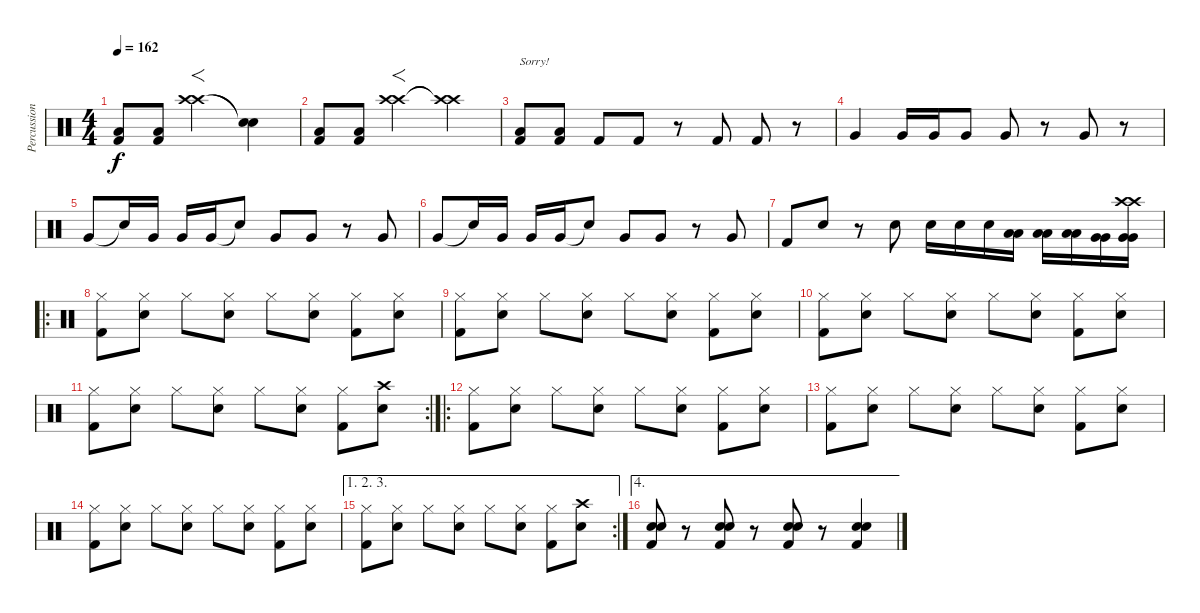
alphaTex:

\track ("Percussions" "Percussion") {instrument percussion}
\staff {score}
\articulation defaults
\ts (4 4)
\tempo 162
\clef neutral
\ks c
("Low Floor Tom (hit)" "Kick (hit) 2").8{dy f} ("Low Floor Tom (hit)" "Kick (hit) 2").8 ("Crash high (hit)" "Crash high (hit)").2{f} ("Snare (hit)"{t} "Snare (hit)"{t}).4 |
("Low Floor Tom (hit)" "Kick (hit) 2").8 ("Low Floor Tom (hit)" "Kick (hit) 2").8 ("Crash high (hit)" "Crash high (hit)").2{f} ("Crash high (hit)"{t} "Crash high (hit)"{t}).4 |
("Low Floor Tom (hit)" "Kick (hit) 2").8{txt "Sorry!"} ("Low Floor Tom (hit)" "Kick (hit) 2").8 "Kick (hit) 2".8 "Kick (hit) 2".8 r.8 "Kick (hit) 2".8 "Kick (hit) 2".8 r.8 |
"Very Low Tom (hit)".4 "Very Low Tom (hit)".16 "Very Low Tom (hit)".16 "Very Low Tom (hit)".8 "Very Low Tom (hit)".8 r.8 "Very Low Tom (hit)".8 r.8 |
"Very Low Tom (hit)".8 "Snare (hit)"{t}.16 "Very Low Tom (hit)".16 "Very Low Tom (hit)".16 "Very Low Tom (hit)".16 "Snare (hit)"{t}.8 "Very Low Tom (hit)".8 "Very Low Tom (hit)".8 r.8 "Very Low Tom (hit)".8 |
"Very Low Tom (hit)".8 "Snare (hit)"{t}.16 "Very Low Tom (hit)".16 "Very Low Tom (hit)".16 "Very Low Tom (hit)".16 "Snare (hit)"{t}.8 "Very Low Tom (hit)".8 "Very Low Tom (hit)".8 r.8 "Very Low Tom (hit)".8 |
"Kick (hit) 2".8 "Electric Snare (hit)".8 r.8 "Electric Snare (hit)".8 "Electric Snare (hit)".16 "Electric Snare (hit)".16 "Electric Snare (hit)".16 ("Low Tom (hit)" "Low Tom (hit)").16 ("Low Tom (hit)" "Low Tom (hit)").16 ("Low Tom (hit)" "Low Tom (hit)").16 ("Very Low Tom (hit)" "Very Low Tom (hit)").16 ("Crash high (hit)" "Crash high (hit)" "Very Low Tom (hit)" "Very Low Tom (hit)").16 |
\ro
("Hi-Hat (closed)" "Kick (hit) 2").8 ("Hi-Hat (closed)" "Electric Snare (hit)").8 "Hi-Hat (closed)".8 ("Hi-Hat (closed)" "Electric Snare (hit)").8 "Hi-Hat (closed)".8 ("Hi-Hat (closed)" "Electric Snare (hit)").8 ("Hi-Hat (closed)" "Kick (hit) 2").8 ("Hi-Hat (closed)" "Electric Snare (hit)").8 |
("Hi-Hat (closed)" "Kick (hit) 2").8 ("Hi-Hat (closed)" "Electric Snare (hit)").8 "Hi-Hat (closed)".8 ("Hi-Hat (closed)" "Electric Snare (hit)").8 "Hi-Hat (closed)".8 ("Hi-Hat (closed)" "Electric Snare (hit)").8 ("Hi-Hat (closed)" "Kick (hit) 2").8 ("Hi-Hat (closed)" "Electric Snare (hit)").8 |
("Hi-Hat (closed)" "Kick (hit) 2").8 ("Hi-Hat (closed)" "Electric Snare (hit)").8 "Hi-Hat (closed)".8 ("Hi-Hat (closed)" "Electric Snare (hit)").8 "Hi-Hat (closed)".8 ("Hi-Hat (closed)" "Electric Snare (hit)").8 ("Hi-Hat (closed)" "Kick (hit) 2").8 ("Hi-Hat (closed)" "Electric Snare (hit)").8 |
\rc 2
("Hi-Hat (closed)" "Kick (hit) 2").8 ("Hi-Hat (closed)" "Electric Snare (hit)").8 "Hi-Hat (closed)".8 ("Hi-Hat (closed)" "Electric Snare (hit)").8 "Hi-Hat (closed)".8 ("Hi-Hat (closed)" "Electric Snare (hit)").8 ("Hi-Hat (closed)" "Kick (hit) 2").8 ("Crash high (hit)" "Electric Snare (hit)").8 |
\ro
("Hi-Hat (closed)" "Kick (hit) 2").8 ("Hi-Hat (closed)" "Electric Snare (hit)").8 "Hi-Hat (closed)".8 ("Hi-Hat (closed)" "Electric Snare (hit)").8 "Hi-Hat (closed)".8 ("Hi-Hat (closed)" "Electric Snare (hit)").8 ("Hi-Hat (closed)" "Kick (hit) 2").8 ("Hi-Hat (closed)" "Electric Snare (hit)").8 |
("Hi-Hat (closed)" "Kick (hit) 2").8 ("Hi-Hat (closed)" "Electric Snare (hit)").8 "Hi-Hat (closed)".8 ("Hi-Hat (closed)" "Electric Snare (hit)").8 "Hi-Hat (closed)".8 ("Hi-Hat (closed)" "Electric Snare (hit)").8 ("Hi-Hat (closed)" "Kick (hit) 2").8 ("Hi-Hat (closed)" "Electric Snare (hit)").8 |
("Hi-Hat (closed)" "Kick (hit) 2").8 ("Hi-Hat (closed)" "Electric Snare (hit)").8 "Hi-Hat (closed)".8 ("Hi-Hat (closed)" "Electric Snare (hit)").8 "Hi-Hat (closed)".8 ("Hi-Hat (closed)" "Electric Snare (hit)").8 ("Hi-Hat (closed)" "Kick (hit) 2").8 ("Hi-Hat (closed)" "Electric Snare (hit)").8 |
\ae (1 2 3)
\rc 2
("Hi-Hat (closed)" "Kick (hit) 2").8 ("Hi-Hat (closed)" "Electric Snare (hit)").8 "Hi-Hat (closed)".8 ("Hi-Hat (closed)" "Electric Snare (hit)").8 "Hi-Hat (closed)".8 ("Hi-Hat (closed)" "Electric Snare (hit)").8 ("Hi-Hat (closed)" "Kick (hit) 2").8 ("Crash high (hit)" "Electric Snare (hit)").8 |
\ae 4
("Electric Snare (hit)" "Electric Snare (hit)" "Kick (hit) 2").8 r.8 ("Electric Snare (hit)" "Electric Snare (hit)" "Kick (hit) 2").8 r.8 ("Electric Snare (hit)" "Electric Snare (hit)" "Kick (hit) 2").8 r.8 ("Electric Snare (hit)" "Electric Snare (hit)" "Kick (hit) 2").4
